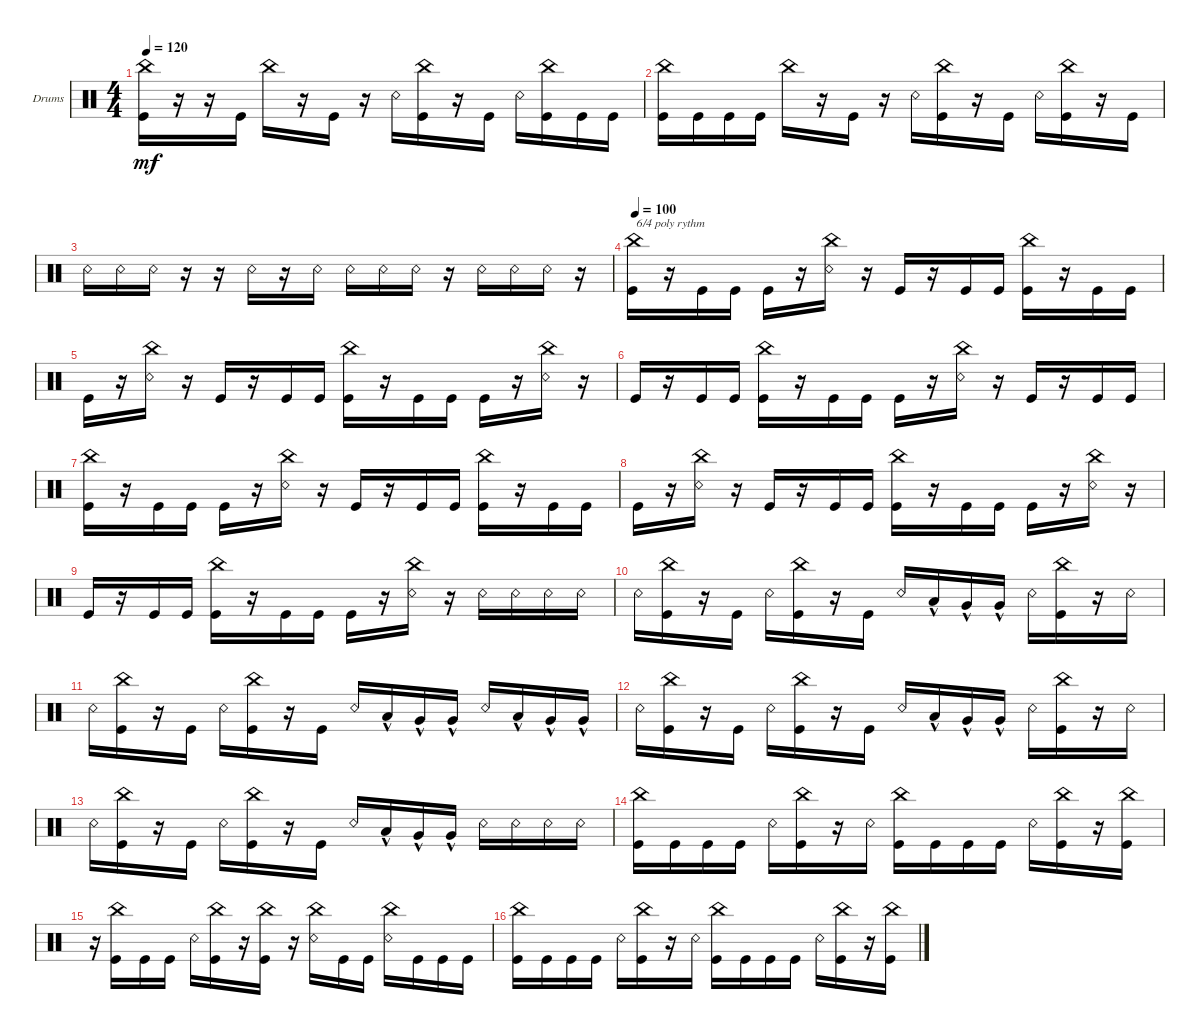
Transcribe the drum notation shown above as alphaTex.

\defaultSystemsLayout 4
\bracketExtendMode groupsimilarinstruments
\firstSystemTrackNameOrientation horizontal
\otherSystemsTrackNameOrientation horizontal
\track ("Drumkit" "Drums") {instrument percussion}
\staff {score}
\articulation defaults
\ts (4 4)
\tempo 120
\clef neutral
\ks c
("Kick (hit)" "China (hit)").16{dy mf} r.16 r.16 "Kick (hit)".16 "China (hit)".16 r.16 "Kick (hit)".16 r.16 "Snare (rim shot)".16 ("Kick (hit)" "China (hit)").16 r.16 "Kick (hit)".16 "Snare (rim shot)".16 ("Kick (hit)" "China (hit)").16 "Kick (hit)".16 "Kick (hit)".16 |
("Kick (hit)" "China (hit)").16 "Kick (hit)".16 "Kick (hit)".16 "Kick (hit)".16 "China (hit)".16 r.16 "Kick (hit)".16 r.16 "Snare (rim shot)".16 ("Kick (hit)" "China (hit)").16 r.16 "Kick (hit)".16 "Snare (rim shot)".16 ("Kick (hit)" "China (hit)").16 r.16 "Kick (hit)".16 |
"Snare (rim shot)".16 "Snare (rim shot)".16 "Snare (rim shot)".16 r.16 r.16 "Snare (rim shot)".16 r.16 "Snare (rim shot)".16 "Snare (rim shot)".16 "Snare (rim shot)".16 "Snare (rim shot)".16 r.16 "Snare (rim shot)".16 "Snare (rim shot)".16 "Snare (rim shot)".16 r.16 |
\tempo 100
("Kick (hit)" "China (hit)").16{txt "6/4 poly rythm"} r.16 "Kick (hit)".16 "Kick (hit)".16 "Kick (hit)".16 r.16 ("Snare (rim shot)" "China (hit)").16 r.16 "Kick (hit)".16 r.16 "Kick (hit)".16 "Kick (hit)".16 ("Kick (hit)" "China (hit)").16 r.16 "Kick (hit)".16 "Kick (hit)".16 |
"Kick (hit)".16 r.16 ("Snare (rim shot)" "China (hit)").16 r.16 "Kick (hit)".16 r.16 "Kick (hit)".16 "Kick (hit)".16 ("Kick (hit)" "China (hit)").16 r.16 "Kick (hit)".16 "Kick (hit)".16 "Kick (hit)".16 r.16 ("Snare (rim shot)" "China (hit)").16 r.16 |
"Kick (hit)".16 r.16 "Kick (hit)".16 "Kick (hit)".16 ("Kick (hit)" "China (hit)").16 r.16 "Kick (hit)".16 "Kick (hit)".16 "Kick (hit)".16 r.16 ("Snare (rim shot)" "China (hit)").16 r.16 "Kick (hit)".16 r.16 "Kick (hit)".16 "Kick (hit)".16 |
("Kick (hit)" "China (hit)").16 r.16 "Kick (hit)".16 "Kick (hit)".16 "Kick (hit)".16 r.16 ("Snare (rim shot)" "China (hit)").16 r.16 "Kick (hit)".16 r.16 "Kick (hit)".16 "Kick (hit)".16 ("Kick (hit)" "China (hit)").16 r.16 "Kick (hit)".16 "Kick (hit)".16 |
"Kick (hit)".16 r.16 ("Snare (rim shot)" "China (hit)").16 r.16 "Kick (hit)".16 r.16 "Kick (hit)".16 "Kick (hit)".16 ("Kick (hit)" "China (hit)").16 r.16 "Kick (hit)".16 "Kick (hit)".16 "Kick (hit)".16 r.16 ("Snare (rim shot)" "China (hit)").16 r.16 |
"Kick (hit)".16 r.16 "Kick (hit)".16 "Kick (hit)".16 ("Kick (hit)" "China (hit)").16 r.16 "Kick (hit)".16 "Kick (hit)".16 "Kick (hit)".16 r.16 ("Snare (rim shot)" "China (hit)").16 r.16 "Snare (rim shot)".16 "Snare (rim shot)".16 "Snare (rim shot)".16 "Snare (rim shot)".16 |
"Snare (rim shot)".16 ("China (hit)" "Kick (hit)").16 r.16 "Kick (hit)".16 "Snare (rim shot)".16 ("China (hit)" "Kick (hit)").16 r.16 "Kick (hit)".16 "Snare (rim shot)".16 "Low Tom (hit)"{hac}.16 "Very Low Tom (hit)"{hac}.16 "Very Low Tom (hit)"{hac}.16 "Snare (rim shot)".16 ("China (hit)" "Kick (hit)").16 r.16 "Snare (rim shot)".16 |
"Snare (rim shot)".16 ("China (hit)" "Kick (hit)").16 r.16 "Kick (hit)".16 "Snare (rim shot)".16 ("China (hit)" "Kick (hit)").16 r.16 "Kick (hit)".16 "Snare (rim shot)".16 "Low Tom (hit)"{hac}.16 "Very Low Tom (hit)"{hac}.16 "Very Low Tom (hit)"{hac}.16 "Snare (rim shot)".16 "Low Tom (hit)"{hac}.16 "Very Low Tom (hit)"{hac}.16 "Very Low Tom (hit)"{hac}.16 |
"Snare (rim shot)".16 ("China (hit)" "Kick (hit)").16 r.16 "Kick (hit)".16 "Snare (rim shot)".16 ("China (hit)" "Kick (hit)").16 r.16 "Kick (hit)".16 "Snare (rim shot)".16 "Low Tom (hit)"{hac}.16 "Very Low Tom (hit)"{hac}.16 "Very Low Tom (hit)"{hac}.16 "Snare (rim shot)".16 ("China (hit)" "Kick (hit)").16 r.16 "Snare (rim shot)".16 |
"Snare (rim shot)".16 ("China (hit)" "Kick (hit)").16 r.16 "Kick (hit)".16 "Snare (rim shot)".16 ("China (hit)" "Kick (hit)").16 r.16 "Kick (hit)".16 "Snare (rim shot)".16 "Low Tom (hit)"{hac}.16 "Very Low Tom (hit)"{hac}.16 "Very Low Tom (hit)"{hac}.16 "Snare (rim shot)".16 "Snare (rim shot)".16 "Snare (rim shot)".16 "Snare (rim shot)".16 |
("Kick (hit)" "China (hit)").16 "Kick (hit)".16 "Kick (hit)".16 "Kick (hit)".16 "Snare (rim shot)".16 ("China (hit)" "Kick (hit)").16 r.16 "Snare (rim shot)".16 ("Kick (hit)" "China (hit)").16 "Kick (hit)".16 "Kick (hit)".16 "Kick (hit)".16 "Snare (rim shot)".16 ("Kick (hit)" "China (hit)").16 r.16 ("Kick (hit)" "China (hit)").16 |
r.16 ("China (hit)" "Kick (hit)").16 "Kick (hit)".16 "Kick (hit)".16 "Snare (rim shot)".16 ("Kick (hit)" "China (hit)").16 r.16 ("China (hit)" "Kick (hit)").16 r.16 ("Snare (rim shot)" "China (hit)").16 "Kick (hit)".16 "Kick (hit)".16 ("Snare (rim shot)" "China (hit)").16 "Kick (hit)".16 "Kick (hit)".16 "Kick (hit)".16 |
("Kick (hit)" "China (hit)").16 "Kick (hit)".16 "Kick (hit)".16 "Kick (hit)".16 "Snare (rim shot)".16 ("China (hit)" "Kick (hit)").16 r.16 "Snare (rim shot)".16 ("Kick (hit)" "China (hit)").16 "Kick (hit)".16 "Kick (hit)".16 "Kick (hit)".16 "Snare (rim shot)".16 ("Kick (hit)" "China (hit)").16 r.16 ("Kick (hit)" "China (hit)").16
